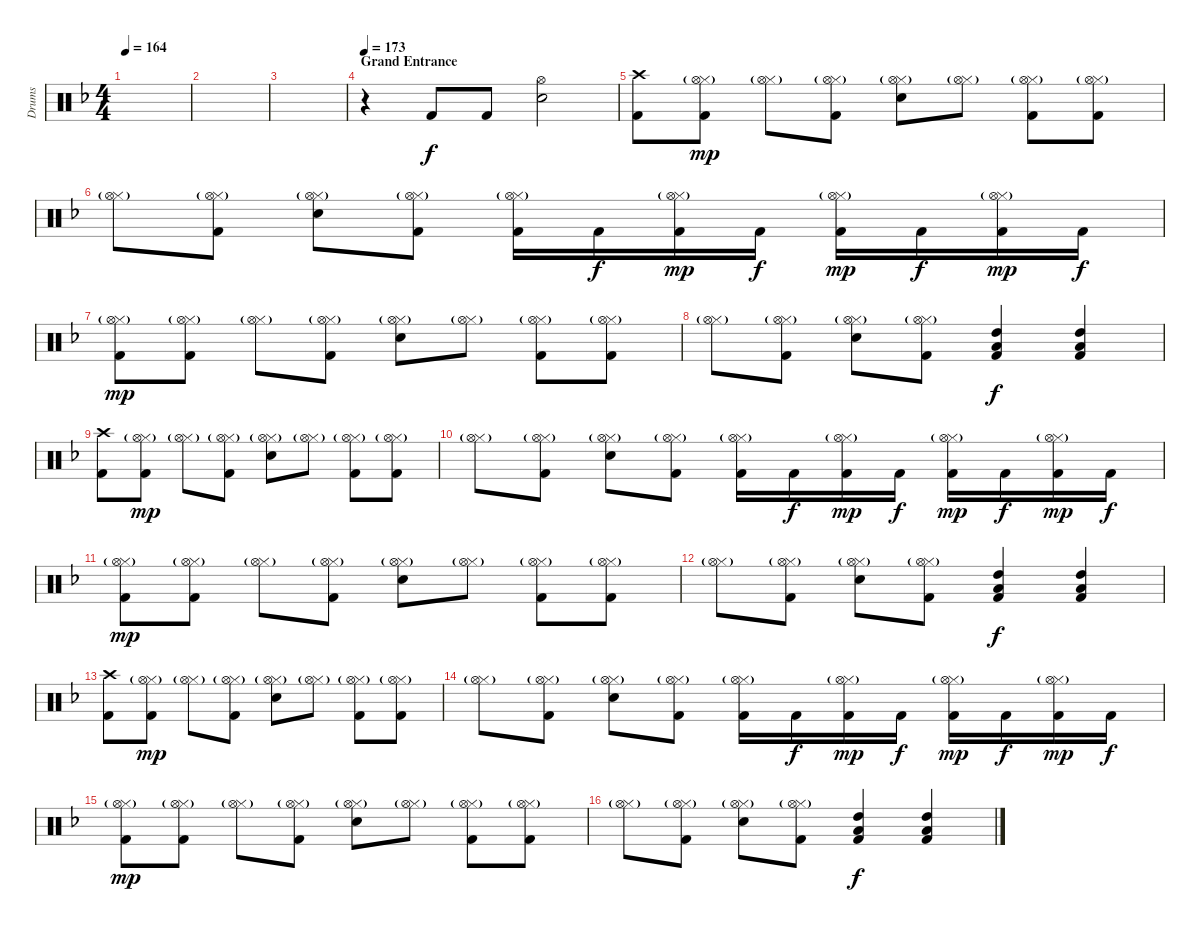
\track ("Drums" "Drums") {instrument percussion}
\staff {score}
\articulation defaults
\ts (4 4)
\tempo 164
\clef neutral
\ks dminor
|
|
|
\section ("" "Grand Entrance")
\tempo 173
r.4 "Kick (hit) 2".8 "Kick (hit) 2".8 ("Hi-Hat (open)" "Snare (hit) 2").2 |
("Crash high (hit)" "Kick (hit) 2").8 ("Hi-Hat (closed)"{g} "Hi-Hat (open)"{g} "Kick (hit) 2").8{dy mp} ("Hi-Hat (closed)"{g} "Hi-Hat (open)"{g}).8 ("Hi-Hat (closed)"{g} "Hi-Hat (open)"{g} "Kick (hit) 2").8 ("Hi-Hat (closed)"{g} "Hi-Hat (open)"{g} "Snare (hit) 2").8 ("Hi-Hat (closed)"{g} "Hi-Hat (open)"{g}).8 ("Hi-Hat (closed)"{g} "Hi-Hat (open)"{g} "Kick (hit) 2").8 ("Hi-Hat (closed)"{g} "Hi-Hat (open)"{g} "Kick (hit) 2").8 |
("Hi-Hat (closed)"{g} "Hi-Hat (open)"{g}).8 ("Hi-Hat (closed)"{g} "Hi-Hat (open)"{g} "Kick (hit) 2").8 ("Hi-Hat (closed)"{g} "Hi-Hat (open)"{g} "Snare (hit) 2").8 ("Hi-Hat (closed)"{g} "Hi-Hat (open)"{g} "Kick (hit) 2").8 ("Hi-Hat (closed)"{g} "Hi-Hat (open)"{g} "Kick (hit) 2").16 "Kick (hit) 2".16{dy f} ("Hi-Hat (closed)"{g} "Hi-Hat (open)"{g} "Kick (hit) 2").16{dy mp} "Kick (hit) 2".16{dy f} ("Hi-Hat (closed)"{g} "Hi-Hat (open)"{g} "Kick (hit) 2").16{dy mp} "Kick (hit) 2".16{dy f} ("Hi-Hat (closed)"{g} "Hi-Hat (open)"{g} "Kick (hit) 2").16{dy mp} "Kick (hit) 2".16{dy f} |
("Hi-Hat (closed)"{g} "Hi-Hat (open)"{g} "Kick (hit) 2").8{dy mp} ("Hi-Hat (closed)"{g} "Hi-Hat (open)"{g} "Kick (hit) 2").8 ("Hi-Hat (closed)"{g} "Hi-Hat (open)"{g}).8 ("Hi-Hat (closed)"{g} "Hi-Hat (open)"{g} "Kick (hit) 2").8 ("Hi-Hat (closed)"{g} "Hi-Hat (open)"{g} "Snare (hit) 2").8 ("Hi-Hat (closed)"{g} "Hi-Hat (open)"{g}).8 ("Hi-Hat (closed)"{g} "Hi-Hat (open)"{g} "Kick (hit) 2").8 ("Hi-Hat (closed)"{g} "Hi-Hat (open)"{g} "Kick (hit) 2").8 |
("Hi-Hat (closed)"{g} "Hi-Hat (open)"{g}).8 ("Hi-Hat (closed)"{g} "Hi-Hat (open)"{g} "Kick (hit) 2").8 ("Hi-Hat (closed)"{g} "Hi-Hat (open)"{g} "Snare (hit) 2").8 ("Hi-Hat (closed)"{g} "Hi-Hat (open)"{g} "Kick (hit) 2").8 ("High Tom (hit)" "Low Tom (hit)" "Kick (hit) 2").4{dy f} ("High Tom (hit)" "Low Tom (hit)" "Kick (hit) 2").4 |
("Crash high (hit)" "Kick (hit) 2").8 ("Hi-Hat (closed)"{g} "Hi-Hat (open)"{g} "Kick (hit) 2").8{dy mp} ("Hi-Hat (closed)"{g} "Hi-Hat (open)"{g}).8 ("Hi-Hat (closed)"{g} "Hi-Hat (open)"{g} "Kick (hit) 2").8 ("Hi-Hat (closed)"{g} "Hi-Hat (open)"{g} "Snare (hit) 2").8 ("Hi-Hat (closed)"{g} "Hi-Hat (open)"{g}).8 ("Hi-Hat (closed)"{g} "Hi-Hat (open)"{g} "Kick (hit) 2").8 ("Hi-Hat (closed)"{g} "Hi-Hat (open)"{g} "Kick (hit) 2").8 |
("Hi-Hat (closed)"{g} "Hi-Hat (open)"{g}).8 ("Hi-Hat (closed)"{g} "Hi-Hat (open)"{g} "Kick (hit) 2").8 ("Hi-Hat (closed)"{g} "Hi-Hat (open)"{g} "Snare (hit) 2").8 ("Hi-Hat (closed)"{g} "Hi-Hat (open)"{g} "Kick (hit) 2").8 ("Hi-Hat (closed)"{g} "Hi-Hat (open)"{g} "Kick (hit) 2").16 "Kick (hit) 2".16{dy f} ("Hi-Hat (closed)"{g} "Hi-Hat (open)"{g} "Kick (hit) 2").16{dy mp} "Kick (hit) 2".16{dy f} ("Hi-Hat (closed)"{g} "Hi-Hat (open)"{g} "Kick (hit) 2").16{dy mp} "Kick (hit) 2".16{dy f} ("Hi-Hat (closed)"{g} "Hi-Hat (open)"{g} "Kick (hit) 2").16{dy mp} "Kick (hit) 2".16{dy f} |
("Hi-Hat (closed)"{g} "Hi-Hat (open)"{g} "Kick (hit) 2").8{dy mp} ("Hi-Hat (closed)"{g} "Hi-Hat (open)"{g} "Kick (hit) 2").8 ("Hi-Hat (closed)"{g} "Hi-Hat (open)"{g}).8 ("Hi-Hat (closed)"{g} "Hi-Hat (open)"{g} "Kick (hit) 2").8 ("Hi-Hat (closed)"{g} "Hi-Hat (open)"{g} "Snare (hit) 2").8 ("Hi-Hat (closed)"{g} "Hi-Hat (open)"{g}).8 ("Hi-Hat (closed)"{g} "Hi-Hat (open)"{g} "Kick (hit) 2").8 ("Hi-Hat (closed)"{g} "Hi-Hat (open)"{g} "Kick (hit) 2").8 |
("Hi-Hat (closed)"{g} "Hi-Hat (open)"{g}).8 ("Hi-Hat (closed)"{g} "Hi-Hat (open)"{g} "Kick (hit) 2").8 ("Hi-Hat (closed)"{g} "Hi-Hat (open)"{g} "Snare (hit) 2").8 ("Hi-Hat (closed)"{g} "Hi-Hat (open)"{g} "Kick (hit) 2").8 ("High Tom (hit)" "Low Tom (hit)" "Kick (hit) 2").4{dy f} ("High Tom (hit)" "Low Tom (hit)" "Kick (hit) 2").4 |
("Crash high (hit)" "Kick (hit) 2").8 ("Hi-Hat (closed)"{g} "Hi-Hat (open)"{g} "Kick (hit) 2").8{dy mp} ("Hi-Hat (closed)"{g} "Hi-Hat (open)"{g}).8 ("Hi-Hat (closed)"{g} "Hi-Hat (open)"{g} "Kick (hit) 2").8 ("Hi-Hat (closed)"{g} "Hi-Hat (open)"{g} "Snare (hit) 2").8 ("Hi-Hat (closed)"{g} "Hi-Hat (open)"{g}).8 ("Hi-Hat (closed)"{g} "Hi-Hat (open)"{g} "Kick (hit) 2").8 ("Hi-Hat (closed)"{g} "Hi-Hat (open)"{g} "Kick (hit) 2").8 |
("Hi-Hat (closed)"{g} "Hi-Hat (open)"{g}).8 ("Hi-Hat (closed)"{g} "Hi-Hat (open)"{g} "Kick (hit) 2").8 ("Hi-Hat (closed)"{g} "Hi-Hat (open)"{g} "Snare (hit) 2").8 ("Hi-Hat (closed)"{g} "Hi-Hat (open)"{g} "Kick (hit) 2").8 ("Hi-Hat (closed)"{g} "Hi-Hat (open)"{g} "Kick (hit) 2").16 "Kick (hit) 2".16{dy f} ("Hi-Hat (closed)"{g} "Hi-Hat (open)"{g} "Kick (hit) 2").16{dy mp} "Kick (hit) 2".16{dy f} ("Hi-Hat (closed)"{g} "Hi-Hat (open)"{g} "Kick (hit) 2").16{dy mp} "Kick (hit) 2".16{dy f} ("Hi-Hat (closed)"{g} "Hi-Hat (open)"{g} "Kick (hit) 2").16{dy mp} "Kick (hit) 2".16{dy f} |
("Hi-Hat (closed)"{g} "Hi-Hat (open)"{g} "Kick (hit) 2").8{dy mp} ("Hi-Hat (closed)"{g} "Hi-Hat (open)"{g} "Kick (hit) 2").8 ("Hi-Hat (closed)"{g} "Hi-Hat (open)"{g}).8 ("Hi-Hat (closed)"{g} "Hi-Hat (open)"{g} "Kick (hit) 2").8 ("Hi-Hat (closed)"{g} "Hi-Hat (open)"{g} "Snare (hit) 2").8 ("Hi-Hat (closed)"{g} "Hi-Hat (open)"{g}).8 ("Hi-Hat (closed)"{g} "Hi-Hat (open)"{g} "Kick (hit) 2").8 ("Hi-Hat (closed)"{g} "Hi-Hat (open)"{g} "Kick (hit) 2").8 |
("Hi-Hat (closed)"{g} "Hi-Hat (open)"{g}).8 ("Hi-Hat (closed)"{g} "Hi-Hat (open)"{g} "Kick (hit) 2").8 ("Hi-Hat (closed)"{g} "Hi-Hat (open)"{g} "Snare (hit) 2").8 ("Hi-Hat (closed)"{g} "Hi-Hat (open)"{g} "Kick (hit) 2").8 ("High Tom (hit)" "Low Tom (hit)" "Kick (hit) 2").4{dy f} ("High Tom (hit)" "Low Tom (hit)" "Kick (hit) 2").4
